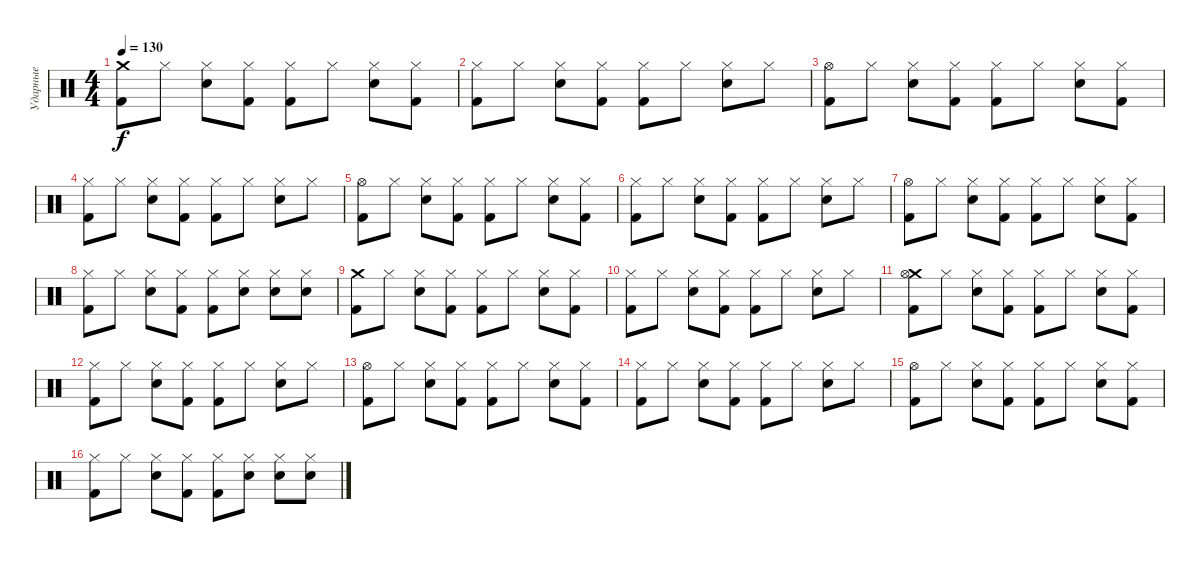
\track ("Ударные" "Ударные") {instrument percussion}
\staff {score}
\articulation defaults
\ts (4 4)
\tempo 130
\clef neutral
\ks c
("Crash medium (hit)" "Kick (hit) 2").8{dy f} "Hi-Hat (closed)".8 ("Hi-Hat (closed)" "Snare (hit) 2").8 ("Hi-Hat (closed)" "Kick (hit) 2").8 ("Hi-Hat (closed)" "Kick (hit) 2").8 "Hi-Hat (closed)".8 ("Hi-Hat (closed)" "Snare (hit) 2").8 ("Hi-Hat (closed)" "Kick (hit) 2").8 |
("Hi-Hat (closed)" "Kick (hit) 2").8 "Hi-Hat (closed)".8 ("Hi-Hat (closed)" "Snare (hit) 2").8 ("Hi-Hat (closed)" "Kick (hit) 2").8 ("Hi-Hat (closed)" "Kick (hit) 2").8 "Hi-Hat (closed)".8 ("Hi-Hat (closed)" "Snare (hit) 2").8 "Hi-Hat (closed)".8 |
("Hi-Hat (open)" "Kick (hit) 2").8 "Hi-Hat (closed)".8 ("Hi-Hat (closed)" "Snare (hit) 2").8 ("Hi-Hat (closed)" "Kick (hit) 2").8 ("Hi-Hat (closed)" "Kick (hit) 2").8 "Hi-Hat (closed)".8 ("Hi-Hat (closed)" "Snare (hit) 2").8 ("Hi-Hat (closed)" "Kick (hit) 2").8 |
("Hi-Hat (closed)" "Kick (hit) 2").8 "Hi-Hat (closed)".8 ("Hi-Hat (closed)" "Snare (hit) 2").8 ("Hi-Hat (closed)" "Kick (hit) 2").8 ("Hi-Hat (closed)" "Kick (hit) 2").8 "Hi-Hat (closed)".8 ("Hi-Hat (closed)" "Snare (hit) 2").8 "Hi-Hat (closed)".8 |
("Hi-Hat (open)" "Kick (hit) 2").8 "Hi-Hat (closed)".8 ("Hi-Hat (closed)" "Snare (hit) 2").8 ("Hi-Hat (closed)" "Kick (hit) 2").8 ("Hi-Hat (closed)" "Kick (hit) 2").8 "Hi-Hat (closed)".8 ("Hi-Hat (closed)" "Snare (hit) 2").8 ("Hi-Hat (closed)" "Kick (hit) 2").8 |
("Hi-Hat (closed)" "Kick (hit) 2").8 "Hi-Hat (closed)".8 ("Hi-Hat (closed)" "Snare (hit) 2").8 ("Hi-Hat (closed)" "Kick (hit) 2").8 ("Hi-Hat (closed)" "Kick (hit) 2").8 "Hi-Hat (closed)".8 ("Hi-Hat (closed)" "Snare (hit) 2").8 "Hi-Hat (closed)".8 |
("Hi-Hat (open)" "Kick (hit) 2").8 "Hi-Hat (closed)".8 ("Hi-Hat (closed)" "Snare (hit) 2").8 ("Hi-Hat (closed)" "Kick (hit) 2").8 ("Hi-Hat (closed)" "Kick (hit) 2").8 "Hi-Hat (closed)".8 ("Hi-Hat (closed)" "Snare (hit) 2").8 ("Hi-Hat (closed)" "Kick (hit) 2").8 |
("Hi-Hat (closed)" "Kick (hit) 2").8 "Hi-Hat (closed)".8 ("Hi-Hat (closed)" "Snare (hit) 2").8 ("Hi-Hat (closed)" "Kick (hit) 2").8 ("Hi-Hat (closed)" "Kick (hit) 2").8 ("Hi-Hat (closed)" "Snare (hit) 2").8 ("Hi-Hat (closed)" "Snare (hit) 2").8 ("Hi-Hat (closed)" "Snare (hit) 2").8 |
("Crash medium (hit)" "Kick (hit) 2").8 "Hi-Hat (closed)".8 ("Hi-Hat (closed)" "Snare (hit) 2").8 ("Hi-Hat (closed)" "Kick (hit) 2").8 ("Hi-Hat (closed)" "Kick (hit) 2").8 "Hi-Hat (closed)".8 ("Hi-Hat (closed)" "Snare (hit) 2").8 ("Hi-Hat (closed)" "Kick (hit) 2").8 |
("Hi-Hat (closed)" "Kick (hit) 2").8 "Hi-Hat (closed)".8 ("Hi-Hat (closed)" "Snare (hit) 2").8 ("Hi-Hat (closed)" "Kick (hit) 2").8 ("Hi-Hat (closed)" "Kick (hit) 2").8 "Hi-Hat (closed)".8 ("Hi-Hat (closed)" "Snare (hit) 2").8 "Hi-Hat (closed)".8 |
("Crash medium (hit)" "Hi-Hat (open)" "Kick (hit) 2").8 "Hi-Hat (closed)".8 ("Hi-Hat (closed)" "Snare (hit) 2").8 ("Hi-Hat (closed)" "Kick (hit) 2").8 ("Hi-Hat (closed)" "Kick (hit) 2").8 "Hi-Hat (closed)".8 ("Hi-Hat (closed)" "Snare (hit) 2").8 ("Hi-Hat (closed)" "Kick (hit) 2").8 |
("Hi-Hat (closed)" "Kick (hit) 2").8 "Hi-Hat (closed)".8 ("Hi-Hat (closed)" "Snare (hit) 2").8 ("Hi-Hat (closed)" "Kick (hit) 2").8 ("Hi-Hat (closed)" "Kick (hit) 2").8 "Hi-Hat (closed)".8 ("Hi-Hat (closed)" "Snare (hit) 2").8 "Hi-Hat (closed)".8 |
("Hi-Hat (open)" "Kick (hit) 2").8 "Hi-Hat (closed)".8 ("Hi-Hat (closed)" "Snare (hit) 2").8 ("Hi-Hat (closed)" "Kick (hit) 2").8 ("Hi-Hat (closed)" "Kick (hit) 2").8 "Hi-Hat (closed)".8 ("Hi-Hat (closed)" "Snare (hit) 2").8 ("Hi-Hat (closed)" "Kick (hit) 2").8 |
("Hi-Hat (closed)" "Kick (hit) 2").8 "Hi-Hat (closed)".8 ("Hi-Hat (closed)" "Snare (hit) 2").8 ("Hi-Hat (closed)" "Kick (hit) 2").8 ("Hi-Hat (closed)" "Kick (hit) 2").8 "Hi-Hat (closed)".8 ("Hi-Hat (closed)" "Snare (hit) 2").8 "Hi-Hat (closed)".8 |
("Hi-Hat (open)" "Kick (hit) 2").8 "Hi-Hat (closed)".8 ("Hi-Hat (closed)" "Snare (hit) 2").8 ("Hi-Hat (closed)" "Kick (hit) 2").8 ("Hi-Hat (closed)" "Kick (hit) 2").8 "Hi-Hat (closed)".8 ("Hi-Hat (closed)" "Snare (hit) 2").8 ("Hi-Hat (closed)" "Kick (hit) 2").8 |
("Hi-Hat (closed)" "Kick (hit) 2").8 "Hi-Hat (closed)".8 ("Hi-Hat (closed)" "Snare (hit) 2").8 ("Hi-Hat (closed)" "Kick (hit) 2").8 ("Hi-Hat (closed)" "Kick (hit) 2").8 ("Hi-Hat (closed)" "Snare (hit) 2").8 ("Hi-Hat (closed)" "Snare (hit) 2").8 ("Hi-Hat (closed)" "Snare (hit) 2").8
